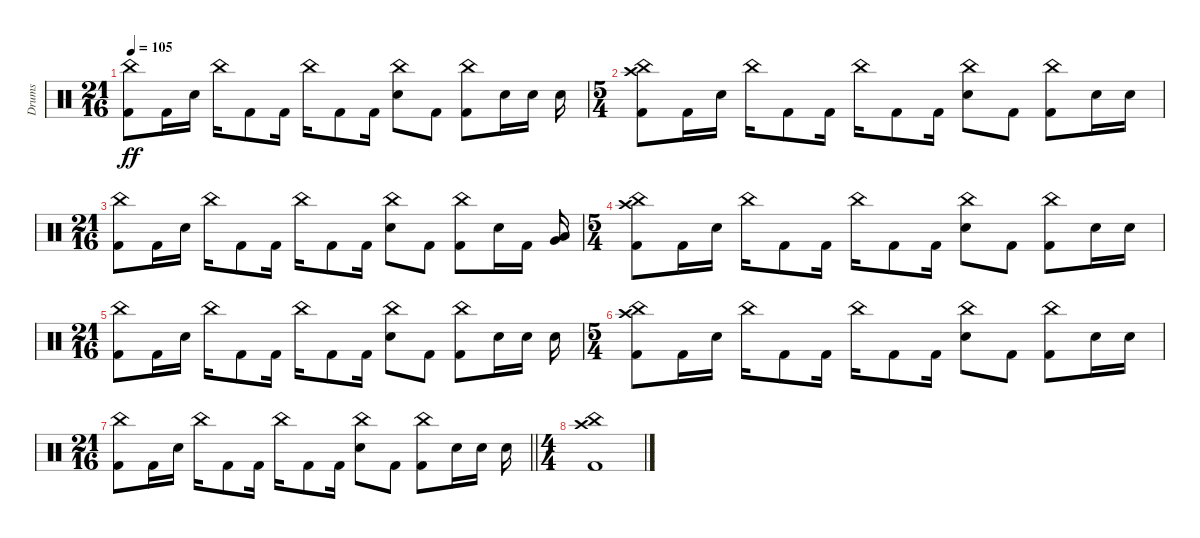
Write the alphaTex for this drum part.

\track ("Drums" "Drums") {instrument percussion}
\staff {score}
\articulation defaults
\ts (21 16)
\tempo 105
\clef neutral
\ks c
("China (hit)" "Kick (hit) 2").8{dy ff} "Kick (hit) 2".16 "Electric Snare (hit)".16 "China (hit)".16 "Kick (hit) 2".8 "Kick (hit) 2".16 "China (hit)".16 "Kick (hit) 2".8 "Kick (hit) 2".16 ("China (hit)" "Electric Snare (hit)").8 "Kick (hit) 2".8 ("China (hit)" "Kick (hit) 2").8 "Electric Snare (hit)".16 "Electric Snare (hit)".16 "Electric Snare (hit)".16 |
\ts (5 4)
("Crash high (hit)" "China (hit)" "Kick (hit) 2").8 "Kick (hit) 2".16 "Electric Snare (hit)".16 "China (hit)".16 "Kick (hit) 2".8 "Kick (hit) 2".16 "China (hit)".16 "Kick (hit) 2".8 "Kick (hit) 2".16 ("China (hit)" "Electric Snare (hit)").8 "Kick (hit) 2".8 ("China (hit)" "Kick (hit) 2").8 "Electric Snare (hit)".16 "Electric Snare (hit)".16 |
\ts (21 16)
("China (hit)" "Kick (hit) 2").8 "Kick (hit) 2".16 "Electric Snare (hit)".16 "China (hit)".16 "Kick (hit) 2".8 "Kick (hit) 2".16 "China (hit)".16 "Kick (hit) 2".8 "Kick (hit) 2".16 ("China (hit)" "Electric Snare (hit)").8 "Kick (hit) 2".8 ("China (hit)" "Kick (hit) 2").8 "Electric Snare (hit)".16 "Kick (hit) 2".16 ("Low Tom (hit)" "Very Low Tom (hit)").16 |
\ts (5 4)
("Crash high (hit)" "China (hit)" "Kick (hit) 2").8 "Kick (hit) 2".16 "Electric Snare (hit)".16 "China (hit)".16 "Kick (hit) 2".8 "Kick (hit) 2".16 "China (hit)".16 "Kick (hit) 2".8 "Kick (hit) 2".16 ("China (hit)" "Electric Snare (hit)").8 "Kick (hit) 2".8 ("China (hit)" "Kick (hit) 2").8 "Electric Snare (hit)".16 "Electric Snare (hit)".16 |
\ts (21 16)
("China (hit)" "Kick (hit) 2").8 "Kick (hit) 2".16 "Electric Snare (hit)".16 "China (hit)".16 "Kick (hit) 2".8 "Kick (hit) 2".16 "China (hit)".16 "Kick (hit) 2".8 "Kick (hit) 2".16 ("China (hit)" "Electric Snare (hit)").8 "Kick (hit) 2".8 ("China (hit)" "Kick (hit) 2").8 "Electric Snare (hit)".16 "Electric Snare (hit)".16 "Electric Snare (hit)".16 |
\ts (5 4)
("Crash high (hit)" "China (hit)" "Kick (hit) 2").8 "Kick (hit) 2".16 "Electric Snare (hit)".16 "China (hit)".16 "Kick (hit) 2".8 "Kick (hit) 2".16 "China (hit)".16 "Kick (hit) 2".8 "Kick (hit) 2".16 ("China (hit)" "Electric Snare (hit)").8 "Kick (hit) 2".8 ("China (hit)" "Kick (hit) 2").8 "Electric Snare (hit)".16 "Electric Snare (hit)".16 |
\ts (21 16)
\barLineRight lightlight
("China (hit)" "Kick (hit) 2").8 "Kick (hit) 2".16 "Electric Snare (hit)".16 "China (hit)".16 "Kick (hit) 2".8 "Kick (hit) 2".16 "China (hit)".16 "Kick (hit) 2".8 "Kick (hit) 2".16 ("China (hit)" "Electric Snare (hit)").8 "Kick (hit) 2".8 ("China (hit)" "Kick (hit) 2").8 "Electric Snare (hit)".16 "Electric Snare (hit)".16 "Electric Snare (hit)".16 |
\ts (4 4)
\section ("" "")
("Crash high (hit)" "China (hit)" "Kick (hit) 2").1
